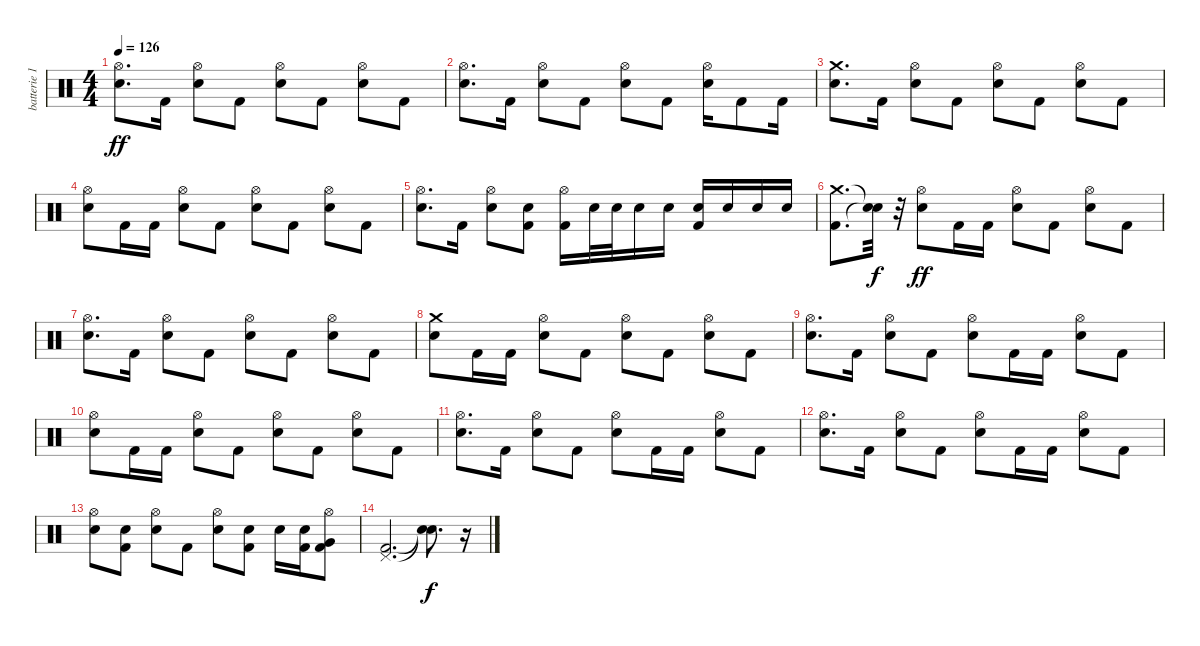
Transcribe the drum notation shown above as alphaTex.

\track ("batterie 1" "batterie 1") {instrument percussion}
\staff {score}
\articulation defaults
\ts (4 4)
\tempo 126
\clef neutral
\ks c
("Electric Snare (hit)" "Hi-Hat (open)").8{d dy ff} "Kick (hit) 2".16 ("Electric Snare (hit)" "Hi-Hat (open)").8 "Kick (hit) 2".8 ("Electric Snare (hit)" "Hi-Hat (open)").8 "Kick (hit) 2".8 ("Electric Snare (hit)" "Hi-Hat (open)").8 "Kick (hit) 2".8 |
("Electric Snare (hit)" "Hi-Hat (open)").8{d} "Kick (hit) 2".16 ("Electric Snare (hit)" "Hi-Hat (open)").8 "Kick (hit) 2".8 ("Electric Snare (hit)" "Hi-Hat (open)").8 "Kick (hit) 2".8 ("Electric Snare (hit)" "Hi-Hat (open)").16 "Kick (hit) 2".8 "Kick (hit) 2".16 |
("Electric Snare (hit)" "Crash medium (hit)").8{d} "Kick (hit) 2".16 ("Electric Snare (hit)" "Hi-Hat (open)").8 "Kick (hit) 2".8 ("Electric Snare (hit)" "Hi-Hat (open)").8 "Kick (hit) 2".8 ("Electric Snare (hit)" "Hi-Hat (open)").8 "Kick (hit) 2".8 |
("Electric Snare (hit)" "Hi-Hat (open)").8 "Kick (hit) 2".16 "Kick (hit) 2".16 ("Electric Snare (hit)" "Hi-Hat (open)").8 "Kick (hit) 2".8 ("Electric Snare (hit)" "Hi-Hat (open)").8 "Kick (hit) 2".8 ("Electric Snare (hit)" "Hi-Hat (open)").8 "Kick (hit) 2".8 |
("Electric Snare (hit)" "Hi-Hat (open)").8{d} "Kick (hit) 2".16 ("Electric Snare (hit)" "Hi-Hat (open)").8 ("Kick (hit) 2" "Electric Snare (hit)").8 ("Kick (hit) 2" "Hi-Hat (open)").16 "Electric Snare (hit)".32 "Electric Snare (hit)".32 "Electric Snare (hit)".16 "Electric Snare (hit)".16 ("Kick (hit) 2" "Electric Snare (hit)").16 "Electric Snare (hit)".16 "Electric Snare (hit)".16 "Electric Snare (hit)".16 |
("Kick (hit) 2" "Crash medium (hit)").8{d} ("Snare (hit)"{t} "Snare (hit)"{t}).32{dy f} r.32 ("Electric Snare (hit)" "Hi-Hat (open)").8{dy ff} "Kick (hit) 2".16 "Kick (hit) 2".16 ("Electric Snare (hit)" "Hi-Hat (open)").8 "Kick (hit) 2".8 ("Electric Snare (hit)" "Hi-Hat (open)").8 "Kick (hit) 2".8 |
("Electric Snare (hit)" "Hi-Hat (open)").8{d} "Kick (hit) 2".16 ("Electric Snare (hit)" "Hi-Hat (open)").8 "Kick (hit) 2".8 ("Electric Snare (hit)" "Hi-Hat (open)").8 "Kick (hit) 2".8 ("Electric Snare (hit)" "Hi-Hat (open)").8 "Kick (hit) 2".8 |
("Electric Snare (hit)" "Crash medium (hit)").8 "Kick (hit) 2".16 "Kick (hit) 2".16 ("Electric Snare (hit)" "Hi-Hat (open)").8 "Kick (hit) 2".8 ("Electric Snare (hit)" "Hi-Hat (open)").8 "Kick (hit) 2".8 ("Electric Snare (hit)" "Hi-Hat (open)").8 "Kick (hit) 2".8 |
("Electric Snare (hit)" "Hi-Hat (open)").8{d} "Kick (hit) 2".16 ("Electric Snare (hit)" "Hi-Hat (open)").8 "Kick (hit) 2".8 ("Electric Snare (hit)" "Hi-Hat (open)").8 "Kick (hit) 2".16 "Kick (hit) 2".16 ("Electric Snare (hit)" "Hi-Hat (open)").8 "Kick (hit) 2".8 |
("Electric Snare (hit)" "Hi-Hat (open)").8 "Kick (hit) 2".16 "Kick (hit) 2".16 ("Electric Snare (hit)" "Hi-Hat (open)").8 "Kick (hit) 2".8 ("Electric Snare (hit)" "Hi-Hat (open)").8 "Kick (hit) 2".8 ("Electric Snare (hit)" "Hi-Hat (open)").8 "Kick (hit) 2".8 |
("Electric Snare (hit)" "Hi-Hat (open)").8{d} "Kick (hit) 2".16 ("Electric Snare (hit)" "Hi-Hat (open)").8 "Kick (hit) 2".8 ("Electric Snare (hit)" "Hi-Hat (open)").8 "Kick (hit) 2".16 "Kick (hit) 2".16 ("Electric Snare (hit)" "Hi-Hat (open)").8 "Kick (hit) 2".8 |
("Electric Snare (hit)" "Hi-Hat (open)").8{d} "Kick (hit) 2".16 ("Electric Snare (hit)" "Hi-Hat (open)").8 "Kick (hit) 2".8 ("Electric Snare (hit)" "Hi-Hat (open)").8 "Kick (hit) 2".16 "Kick (hit) 2".16 ("Electric Snare (hit)" "Hi-Hat (open)").8 "Kick (hit) 2".8 |
("Electric Snare (hit)" "Hi-Hat (open)").8 ("Kick (hit) 2" "Electric Snare (hit)").8 ("Electric Snare (hit)" "Hi-Hat (open)").8 "Kick (hit) 2".8 ("Electric Snare (hit)" "Hi-Hat (open)").8 ("Kick (hit) 2" "Electric Snare (hit)").8 "Electric Snare (hit)".16 ("Kick (hit) 2" "Electric Snare (hit)").16 ("Kick (hit) 2" "Very Low Tom (hit)" "Hi-Hat (open)").8 |
("Kick (hit) 2" "Pedal Hi-Hat (hit)").2{d} ("Snare (hit)"{t} "Snare (hit)"{t}).8{d dy f} r.16
